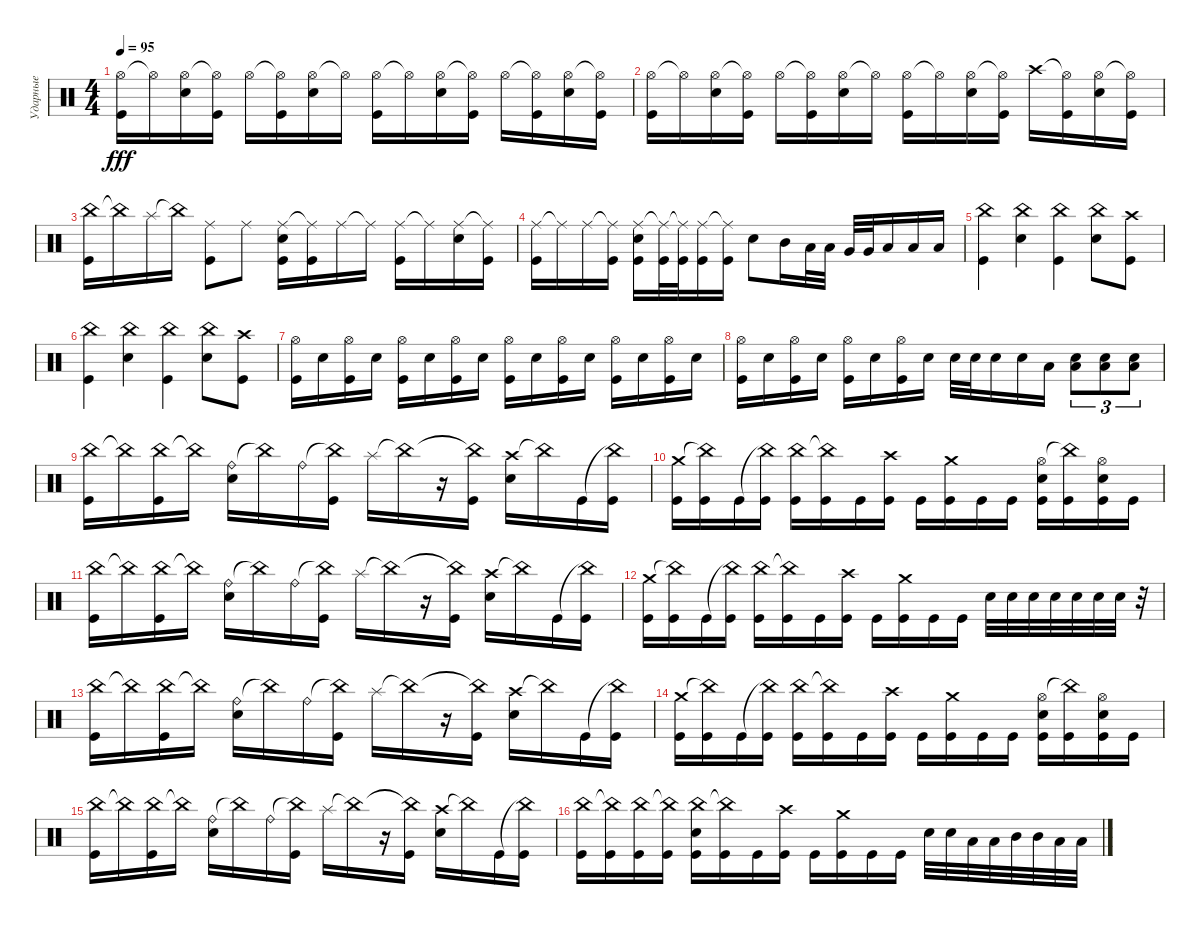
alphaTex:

\track ("Ударные" "Ударные") {instrument percussion}
\staff {score}
\articulation defaults
\ts (4 4)
\tempo 95
\clef neutral
\ks c
("Hi-Hat (open)" "Kick (hit)").16{dy fff} "Hi-Hat (open)"{t}.16 ("Hi-Hat (open)" "Snare (hit) 2").16 ("Hi-Hat (open)"{t} "Kick (hit)").16 "Hi-Hat (open)".16 ("Hi-Hat (open)"{t} "Kick (hit)").16 ("Hi-Hat (open)" "Snare (hit) 2").16 "Hi-Hat (open)"{t}.16 ("Hi-Hat (open)" "Kick (hit)").16 "Hi-Hat (open)"{t}.16 ("Hi-Hat (open)" "Snare (hit) 2").16 ("Hi-Hat (open)"{t} "Kick (hit)").16 "Hi-Hat (open)".16 ("Hi-Hat (open)"{t} "Kick (hit)").16 ("Hi-Hat (open)" "Snare (hit) 2").16 ("Hi-Hat (open)"{t} "Kick (hit)").16 |
("Hi-Hat (open)" "Kick (hit)").16 "Hi-Hat (open)"{t}.16 ("Hi-Hat (open)" "Snare (hit) 2").16 ("Hi-Hat (open)"{t} "Kick (hit)").16 "Hi-Hat (open)".16 ("Hi-Hat (open)"{t} "Kick (hit)").16 ("Hi-Hat (open)" "Snare (hit) 2").16 "Hi-Hat (open)"{t}.16 ("Hi-Hat (open)" "Kick (hit)").16 "Hi-Hat (open)"{t}.16 ("Hi-Hat (open)" "Snare (hit) 2").16 ("Hi-Hat (open)"{t} "Kick (hit)").16 "Crash high (hit)".16 ("Hi-Hat (open)"{t} "Kick (hit)").16 ("Hi-Hat (open)" "Snare (hit) 2").16 ("Hi-Hat (open)"{t} "Kick (hit)").16 |
("China (hit)" "Kick (hit)").16 "China (hit)"{t}.16 "Splash (hit)".16 "China (hit)"{t}.16 ("Ride (middle)" "Kick (hit)").8 "Ride (middle)".8 ("Ride (middle)" "Snare (hit) 2" "Kick (hit)").16 ("Ride (middle)"{t} "Kick (hit)").16 "Ride (middle)".16 "Ride (middle)"{t}.16 ("Ride (middle)" "Kick (hit)").16 "Ride (middle)"{t}.16 ("Ride (middle)" "Snare (hit) 2").16 ("Ride (middle)"{t} "Kick (hit)").16 |
("Ride (middle)" "Kick (hit)").16 "Ride (middle)"{t}.16 "Ride (middle)".16 ("Ride (middle)"{t} "Kick (hit)").16 ("Ride (middle)" "Snare (hit) 2" "Kick (hit)").16 ("Ride (middle)"{t} "Kick (hit)").32 ("Ride (middle)"{t} "Kick (hit)").32 ("Ride (middle)" "Kick (hit)").16 ("Ride (middle)"{t} "Kick (hit)").16 "Snare (hit) 2".8 "Mid Tom (hit)".16 "Low Tom (hit)".32 "Low Tom (hit)".32 "Very Low Tom (hit)".32 "Very Low Tom (hit)".32 "Low Floor Tom (hit)".16 "Low Floor Tom (hit)".16 "Low Floor Tom (hit)".16 |
("China (hit)" "Kick (hit)").4 ("China (hit)" "Snare (hit) 2").4 ("China (hit)" "Kick (hit)").4 ("China (hit)" "Snare (hit) 2").8 ("Crash high (hit)" "Kick (hit)").8 |
("China (hit)" "Kick (hit)").4 ("China (hit)" "Snare (hit) 2").4 ("China (hit)" "Kick (hit)").4 ("China (hit)" "Snare (hit) 2").8 ("Crash high (hit)" "Kick (hit)").8 |
("Hi-Hat (open)" "Kick (hit)").16 "Snare (hit) 2".16 ("Hi-Hat (open)" "Kick (hit)").16 "Snare (hit) 2".16 ("Hi-Hat (open)" "Kick (hit)").16 "Snare (hit) 2".16 ("Hi-Hat (open)" "Kick (hit)").16 "Snare (hit) 2".16 ("Hi-Hat (open)" "Kick (hit)").16 "Snare (hit) 2".16 ("Hi-Hat (open)" "Kick (hit)").16 "Snare (hit) 2".16 ("Hi-Hat (open)" "Kick (hit)").16 "Snare (hit) 2".16 ("Hi-Hat (open)" "Kick (hit)").16 "Snare (hit) 2".16 |
("Hi-Hat (open)" "Kick (hit)").16 "Snare (hit) 2".16 ("Hi-Hat (open)" "Kick (hit)").16 "Snare (hit) 2".16 ("Hi-Hat (open)" "Kick (hit)").16 "Snare (hit) 2".16 ("Hi-Hat (open)" "Kick (hit)").16 "Snare (hit) 2".16 "Snare (hit) 2".32 "Snare (hit) 2".32 "Snare (hit) 2".16 "Snare (hit) 2".16 "Low Tom (hit)".16 ("Snare (hit) 2" "Low Floor Tom (hit)").8{tu (3 2)} ("Snare (hit) 2" "Low Floor Tom (hit)").8{tu (3 2)} ("Snare (hit) 2" "Low Floor Tom (hit)").8{tu (3 2)} |
("China (hit)" "Kick (hit)").16 "China (hit)"{t}.16 ("China (hit)" "Kick (hit)").16 "China (hit)"{t}.16 ("Ride (bell)" "Snare (hit) 2").16 "China (hit)"{t}.16 "Ride (bell)".16 ("China (hit)"{t} "Kick (hit)").16 "Splash (hit)".16 "China (hit)"{t}.16 r.16 ("China (hit)"{t} "Kick (hit)").16 ("Crash high (hit)" "Snare (hit) 2").16 "China (hit)"{t}.16 "Kick (hit)".16 ("China (hit)"{t} "Kick (hit)").16 |
("Crash medium (hit)" "Kick (hit)").16 ("China (hit)"{t} "Kick (hit)").16 "Kick (hit)".16 ("China (hit)"{t} "Kick (hit)").16 ("China (hit)" "Kick (hit)").16 ("China (hit)"{t} "Kick (hit)").16 "Kick (hit)".16 ("Crash high (hit)" "Kick (hit)").16 "Kick (hit)".16 ("Crash medium (hit)" "Kick (hit)").16 "Kick (hit)".16 "Kick (hit)".16 ("Hi-Hat (open)" "Snare (hit) 2" "Kick (hit)").16 ("China (hit)"{t} "Kick (hit)").16 ("Hi-Hat (open)" "Snare (hit) 2" "Kick (hit)").16 "Kick (hit)".16 |
("China (hit)" "Kick (hit)").16 "China (hit)"{t}.16 ("China (hit)" "Kick (hit)").16 "China (hit)"{t}.16 ("Ride (bell)" "Snare (hit) 2").16 "China (hit)"{t}.16 "Ride (bell)".16 ("China (hit)"{t} "Kick (hit)").16 "Splash (hit)".16 "China (hit)"{t}.16 r.16 ("China (hit)"{t} "Kick (hit)").16 ("Crash high (hit)" "Snare (hit) 2").16 "China (hit)"{t}.16 "Kick (hit)".16 ("China (hit)"{t} "Kick (hit)").16 |
("Crash medium (hit)" "Kick (hit)").16 ("China (hit)"{t} "Kick (hit)").16 "Kick (hit)".16 ("China (hit)"{t} "Kick (hit)").16 ("China (hit)" "Kick (hit)").16 ("China (hit)"{t} "Kick (hit)").16 "Kick (hit)".16 ("Crash high (hit)" "Kick (hit)").16 "Kick (hit)".16 ("Crash medium (hit)" "Kick (hit)").16 "Kick (hit)".16 "Kick (hit)".16 "Snare (hit) 2".32 "Snare (hit) 2".32 "Snare (hit) 2".32 "Snare (hit) 2".32 "Snare (hit) 2".32 "Snare (hit) 2".32 "Snare (hit) 2".32 r.32 |
("China (hit)" "Kick (hit)").16 "China (hit)"{t}.16 ("China (hit)" "Kick (hit)").16 "China (hit)"{t}.16 ("Ride (bell)" "Snare (hit) 2").16 "China (hit)"{t}.16 "Ride (bell)".16 ("China (hit)"{t} "Kick (hit)").16 "Splash (hit)".16 "China (hit)"{t}.16 r.16 ("China (hit)"{t} "Kick (hit)").16 ("Crash high (hit)" "Snare (hit) 2").16 "China (hit)"{t}.16 "Kick (hit)".16 ("China (hit)"{t} "Kick (hit)").16 |
("Crash medium (hit)" "Kick (hit)").16 ("China (hit)"{t} "Kick (hit)").16 "Kick (hit)".16 ("China (hit)"{t} "Kick (hit)").16 ("China (hit)" "Kick (hit)").16 ("China (hit)"{t} "Kick (hit)").16 "Kick (hit)".16 ("Crash high (hit)" "Kick (hit)").16 "Kick (hit)".16 ("Crash medium (hit)" "Kick (hit)").16 "Kick (hit)".16 "Kick (hit)".16 ("Hi-Hat (open)" "Snare (hit) 2" "Kick (hit)").16 ("China (hit)"{t} "Kick (hit)").16 ("Hi-Hat (open)" "Snare (hit) 2" "Kick (hit)").16 "Kick (hit)".16 |
("China (hit)" "Kick (hit)").16 "China (hit)"{t}.16 ("China (hit)" "Kick (hit)").16 "China (hit)"{t}.16 ("Ride (bell)" "Snare (hit) 2").16 "China (hit)"{t}.16 "Ride (bell)".16 ("China (hit)"{t} "Kick (hit)").16 "Splash (hit)".16 "China (hit)"{t}.16 r.16 ("China (hit)"{t} "Kick (hit)").16 ("Crash high (hit)" "Snare (hit) 2").16 "China (hit)"{t}.16 "Kick (hit)".16 ("China (hit)"{t} "Kick (hit)").16 |
("China (hit)" "Kick (hit)").16 ("China (hit)"{t} "Kick (hit)").16 ("China (hit)" "Kick (hit)").16 ("China (hit)"{t} "Kick (hit)").16 ("China (hit)" "Snare (hit) 2" "Kick (hit)").16 ("China (hit)"{t} "Kick (hit)").16 "Kick (hit)".16 ("Crash high (hit)" "Kick (hit)").16 "Kick (hit)".16 ("Crash medium (hit)" "Kick (hit)").16 "Kick (hit)".16 "Kick (hit)".16 "Snare (hit) 2".32 "Snare (hit) 2".32 "Low Tom (hit)".32 "Low Tom (hit)".32 "Mid Tom (hit)".32 "Mid Tom (hit)".32 "Low Tom (hit)".32 "Low Tom (hit)".32
